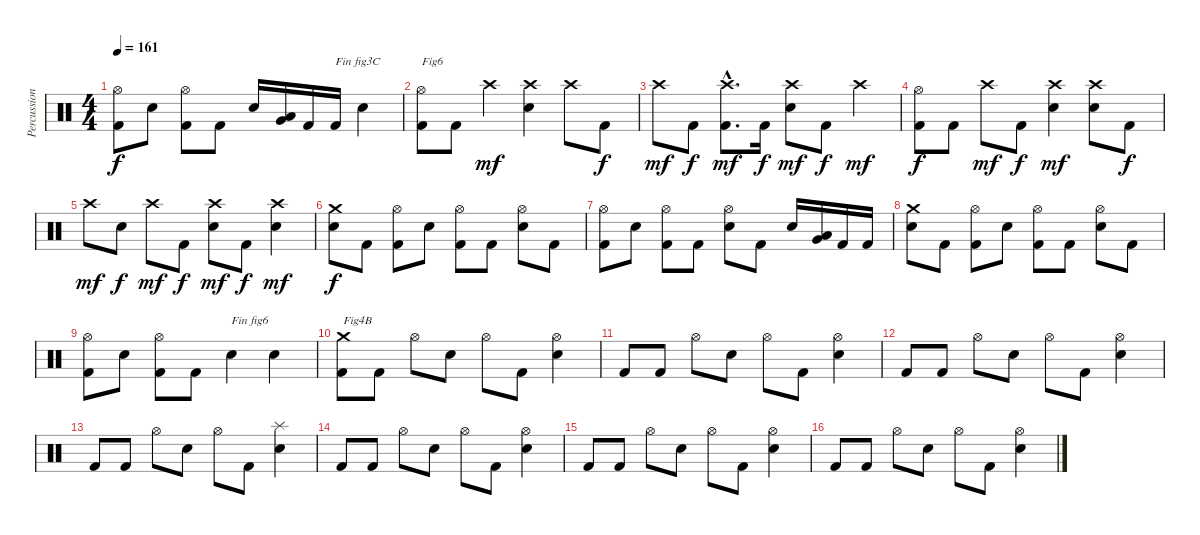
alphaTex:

\track ("Percussions" "Percussion") {instrument percussion}
\staff {score}
\articulation defaults
\ts (4 4)
\tempo 161
\clef neutral
\ks c
("Kick (hit) 2" "Hi-Hat (open)").8{dy f} "Electric Snare (hit)".8 ("Kick (hit) 2" "Hi-Hat (open)").8 "Kick (hit) 2".8 "Electric Snare (hit)".16 ("Very Low Tom (hit)" "Low Tom (hit)").16 "Kick (hit) 2".16 "Kick (hit) 2".16{txt "Fin fig3C"} "Electric Snare (hit)".4 |
("Kick (hit) 2" "Hi-Hat (open)").8{txt "Fig6"} "Kick (hit) 2".8 "Crash high (hit)".4{dy mf} ("Electric Snare (hit)" "Crash high (hit)").4 "Crash high (hit)".8 "Kick (hit) 2".8{dy f} |
"Crash high (hit)".8{dy mf} "Kick (hit) 2".8{dy f} ("Kick (hit) 2"{hac} "Crash high (hit)"{hac}).8{d dy mf} "Kick (hit) 2".16{dy f} ("Electric Snare (hit)" "Crash high (hit)").8{dy mf} "Kick (hit) 2".8{dy f} "Crash high (hit)".4{dy mf} |
("Kick (hit) 2" "Hi-Hat (open)").8{dy f} "Kick (hit) 2".8 "Crash high (hit)".8{dy mf} "Kick (hit) 2".8{dy f} ("Electric Snare (hit)" "Crash high (hit)").4{dy mf} ("Electric Snare (hit)" "Crash high (hit)").8 "Kick (hit) 2".8{dy f} |
"Crash high (hit)".8{dy mf} "Electric Snare (hit)".8{dy f} "Crash high (hit)".8{dy mf} "Kick (hit) 2".8{dy f} ("Electric Snare (hit)" "Crash high (hit)").8{dy mf} "Kick (hit) 2".8{dy f} ("Electric Snare (hit)" "Crash high (hit)").4{dy mf} |
("Electric Snare (hit)" "Crash medium (hit)").8{dy f} "Kick (hit) 2".8 ("Kick (hit) 2" "Hi-Hat (open)").8 "Electric Snare (hit)".8 ("Kick (hit) 2" "Hi-Hat (open)").8 "Kick (hit) 2".8 ("Electric Snare (hit)" "Hi-Hat (open)").8 "Kick (hit) 2".8 |
("Kick (hit) 2" "Hi-Hat (open)").8 "Electric Snare (hit)".8 ("Kick (hit) 2" "Hi-Hat (open)").8 "Kick (hit) 2".8 ("Electric Snare (hit)" "Hi-Hat (open)").8 "Kick (hit) 2".8 "Electric Snare (hit)".16 ("Very Low Tom (hit)" "Low Tom (hit)").16 "Kick (hit) 2".16 "Kick (hit) 2".16 |
("Electric Snare (hit)" "Crash medium (hit)").8 "Kick (hit) 2".8 ("Kick (hit) 2" "Hi-Hat (open)").8 "Electric Snare (hit)".8 ("Kick (hit) 2" "Hi-Hat (open)").8 "Kick (hit) 2".8 ("Electric Snare (hit)" "Hi-Hat (open)").8 "Kick (hit) 2".8 |
("Kick (hit) 2" "Hi-Hat (open)").8 "Electric Snare (hit)".8 ("Kick (hit) 2" "Hi-Hat (open)").8 "Kick (hit) 2".8 "Electric Snare (hit)".4{txt "Fin fig6"} "Electric Snare (hit)".4 |
("Kick (hit) 2" "Crash medium (hit)").8{txt "Fig4B"} "Kick (hit) 2".8 "Hi-Hat (open)".8 "Electric Snare (hit)".8 "Hi-Hat (open)".8 "Kick (hit) 2".8 ("Electric Snare (hit)" "Hi-Hat (open)").4 |
"Kick (hit) 2".8 "Kick (hit) 2".8 "Hi-Hat (open)".8 "Electric Snare (hit)".8 "Hi-Hat (open)".8 "Kick (hit) 2".8 ("Electric Snare (hit)" "Hi-Hat (open)").4 |
"Kick (hit) 2".8 "Kick (hit) 2".8 "Hi-Hat (open)".8 "Electric Snare (hit)".8 "Hi-Hat (open)".8 "Kick (hit) 2".8 ("Electric Snare (hit)" "Hi-Hat (open)").4 |
"Kick (hit) 2".8 "Kick (hit) 2".8 "Hi-Hat (open)".8 "Electric Snare (hit)".8 "Hi-Hat (open)".8 "Kick (hit) 2".8 ("Electric Snare (hit)" "Splash (hit)").4 |
"Kick (hit) 2".8 "Kick (hit) 2".8 "Hi-Hat (open)".8 "Electric Snare (hit)".8 "Hi-Hat (open)".8 "Kick (hit) 2".8 ("Electric Snare (hit)" "Hi-Hat (open)").4 |
"Kick (hit) 2".8 "Kick (hit) 2".8 "Hi-Hat (open)".8 "Electric Snare (hit)".8 "Hi-Hat (open)".8 "Kick (hit) 2".8 ("Electric Snare (hit)" "Hi-Hat (open)").4 |
"Kick (hit) 2".8 "Kick (hit) 2".8 "Hi-Hat (open)".8 "Electric Snare (hit)".8 "Hi-Hat (open)".8 "Kick (hit) 2".8 ("Electric Snare (hit)" "Hi-Hat (open)").4
